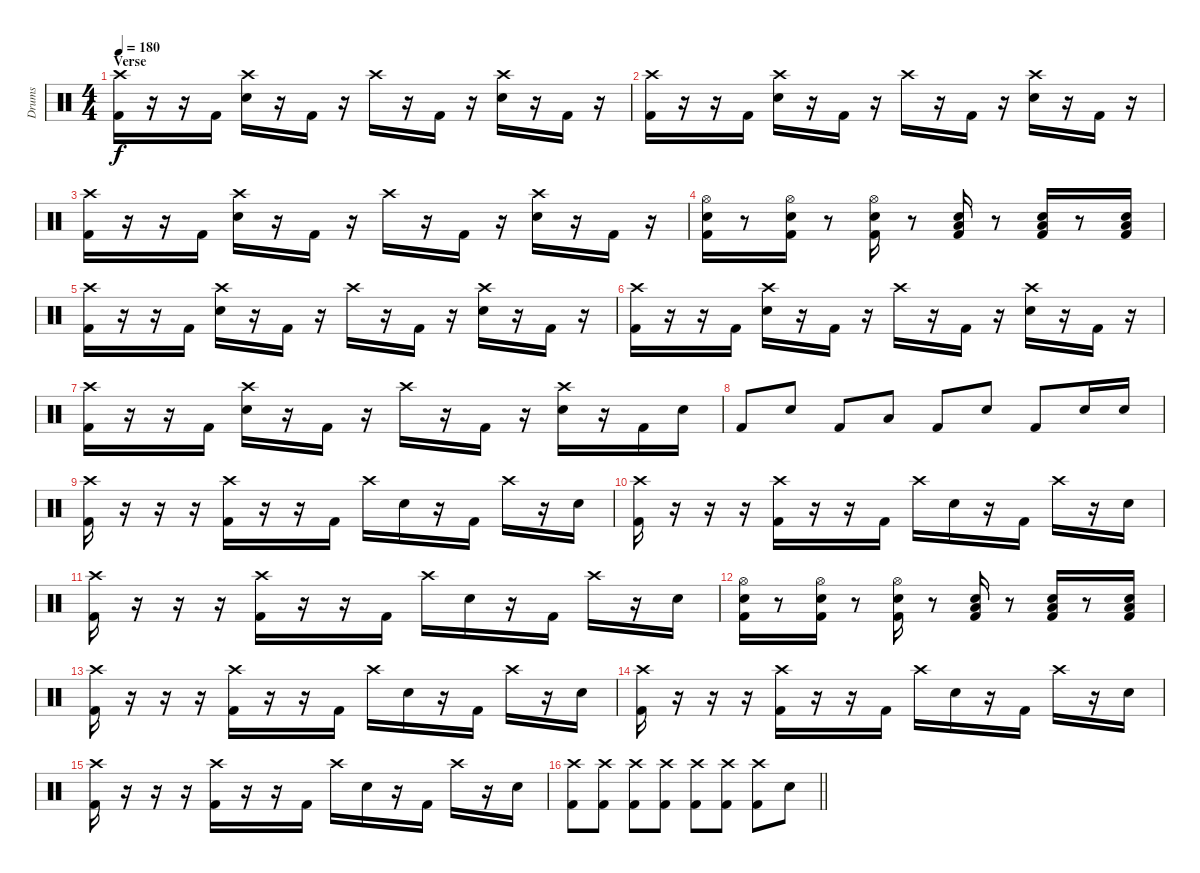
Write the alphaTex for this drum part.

\track ("Drums" "Drums") {instrument percussion}
\staff {score}
\articulation defaults
\ts (4 4)
\section ("" "Verse")
\tempo 180
\clef neutral
\ks c
("Crash high (hit)" "Kick (hit) 2").16{dy f} r.16 r.16 "Kick (hit) 2".16 ("Crash high (hit)" "Electric Snare (hit)").16 r.16 "Kick (hit) 2".16 r.16 "Crash high (hit)".16 r.16 "Kick (hit) 2".16 r.16 ("Crash high (hit)" "Electric Snare (hit)").16 r.16 "Kick (hit) 2".16 r.16 |
("Crash high (hit)" "Kick (hit) 2").16 r.16 r.16 "Kick (hit) 2".16 ("Crash high (hit)" "Electric Snare (hit)").16 r.16 "Kick (hit) 2".16 r.16 "Crash high (hit)".16 r.16 "Kick (hit) 2".16 r.16 ("Crash high (hit)" "Electric Snare (hit)").16 r.16 "Kick (hit) 2".16 r.16 |
("Crash high (hit)" "Kick (hit) 2").16 r.16 r.16 "Kick (hit) 2".16 ("Crash high (hit)" "Electric Snare (hit)").16 r.16 "Kick (hit) 2".16 r.16 "Crash high (hit)".16 r.16 "Kick (hit) 2".16 r.16 ("Crash high (hit)" "Electric Snare (hit)").16 r.16 "Kick (hit) 2".16 r.16 |
("Hi-Hat (open)" "Electric Snare (hit)" "Kick (hit) 2").16 r.8 ("Hi-Hat (open)" "Electric Snare (hit)" "Kick (hit) 2").16 r.8 ("Hi-Hat (open)" "Electric Snare (hit)" "Kick (hit) 2").16 r.8 ("Low Floor Tom (hit)" "Electric Snare (hit)" "Kick (hit) 2").16 r.8 ("Low Floor Tom (hit)" "Electric Snare (hit)" "Kick (hit) 2").16 r.8 ("Low Floor Tom (hit)" "Electric Snare (hit)" "Kick (hit) 2").16 |
("Crash high (hit)" "Kick (hit) 2").16 r.16 r.16 "Kick (hit) 2".16 ("Crash high (hit)" "Electric Snare (hit)").16 r.16 "Kick (hit) 2".16 r.16 "Crash high (hit)".16 r.16 "Kick (hit) 2".16 r.16 ("Crash high (hit)" "Electric Snare (hit)").16 r.16 "Kick (hit) 2".16 r.16 |
("Crash high (hit)" "Kick (hit) 2").16 r.16 r.16 "Kick (hit) 2".16 ("Crash high (hit)" "Electric Snare (hit)").16 r.16 "Kick (hit) 2".16 r.16 "Crash high (hit)".16 r.16 "Kick (hit) 2".16 r.16 ("Crash high (hit)" "Electric Snare (hit)").16 r.16 "Kick (hit) 2".16 r.16 |
("Crash high (hit)" "Kick (hit) 2").16 r.16 r.16 "Kick (hit) 2".16 ("Crash high (hit)" "Electric Snare (hit)").16 r.16 "Kick (hit) 2".16 r.16 "Crash high (hit)".16 r.16 "Kick (hit) 2".16 r.16 ("Crash high (hit)" "Electric Snare (hit)").16 r.16 "Kick (hit) 2".16 "Electric Snare (hit)".16 |
"Kick (hit) 2".8 "Electric Snare (hit)".8 "Kick (hit) 2".8 "Low Tom (hit)".8 "Kick (hit) 2".8 "Electric Snare (hit)".8 "Kick (hit) 2".8 "Electric Snare (hit)".16 "Electric Snare (hit)".16 |
("Crash high (hit)" "Kick (hit) 2").16 r.16 r.16 r.16 ("Crash high (hit)" "Kick (hit) 2").16 r.16 r.16 "Kick (hit) 2".16 "Crash high (hit)".16 "Electric Snare (hit)".16 r.16 "Kick (hit) 2".16 "Crash high (hit)".16 r.16 "Electric Snare (hit)".16 |
("Crash high (hit)" "Kick (hit) 2").16 r.16 r.16 r.16 ("Crash high (hit)" "Kick (hit) 2").16 r.16 r.16 "Kick (hit) 2".16 "Crash high (hit)".16 "Electric Snare (hit)".16 r.16 "Kick (hit) 2".16 "Crash high (hit)".16 r.16 "Electric Snare (hit)".16 |
("Crash high (hit)" "Kick (hit) 2").16 r.16 r.16 r.16 ("Crash high (hit)" "Kick (hit) 2").16 r.16 r.16 "Kick (hit) 2".16 "Crash high (hit)".16 "Electric Snare (hit)".16 r.16 "Kick (hit) 2".16 "Crash high (hit)".16 r.16 "Electric Snare (hit)".16 |
("Hi-Hat (open)" "Electric Snare (hit)" "Kick (hit) 2").16 r.8 ("Hi-Hat (open)" "Electric Snare (hit)" "Kick (hit) 2").16 r.8 ("Hi-Hat (open)" "Electric Snare (hit)" "Kick (hit) 2").16 r.8 ("Low Floor Tom (hit)" "Electric Snare (hit)" "Kick (hit) 2").16 r.8 ("Low Floor Tom (hit)" "Electric Snare (hit)" "Kick (hit) 2").16 r.8 ("Low Floor Tom (hit)" "Electric Snare (hit)" "Kick (hit) 2").16 |
("Crash high (hit)" "Kick (hit) 2").16 r.16 r.16 r.16 ("Crash high (hit)" "Kick (hit) 2").16 r.16 r.16 "Kick (hit) 2".16 "Crash high (hit)".16 "Electric Snare (hit)".16 r.16 "Kick (hit) 2".16 "Crash high (hit)".16 r.16 "Electric Snare (hit)".16 |
("Crash high (hit)" "Kick (hit) 2").16 r.16 r.16 r.16 ("Crash high (hit)" "Kick (hit) 2").16 r.16 r.16 "Kick (hit) 2".16 "Crash high (hit)".16 "Electric Snare (hit)".16 r.16 "Kick (hit) 2".16 "Crash high (hit)".16 r.16 "Electric Snare (hit)".16 |
("Crash high (hit)" "Kick (hit) 2").16 r.16 r.16 r.16 ("Crash high (hit)" "Kick (hit) 2").16 r.16 r.16 "Kick (hit) 2".16 "Crash high (hit)".16 "Electric Snare (hit)".16 r.16 "Kick (hit) 2".16 "Crash high (hit)".16 r.16 "Electric Snare (hit)".16 |
\barLineRight lightlight
("Crash high (hit)" "Kick (hit) 2").8 ("Crash high (hit)" "Kick (hit) 2").8 ("Crash high (hit)" "Kick (hit) 2").8 ("Crash high (hit)" "Kick (hit) 2").8 ("Crash high (hit)" "Kick (hit) 2").8 ("Crash high (hit)" "Kick (hit) 2").8 ("Crash high (hit)" "Kick (hit) 2").8 "Electric Snare (hit)".8
